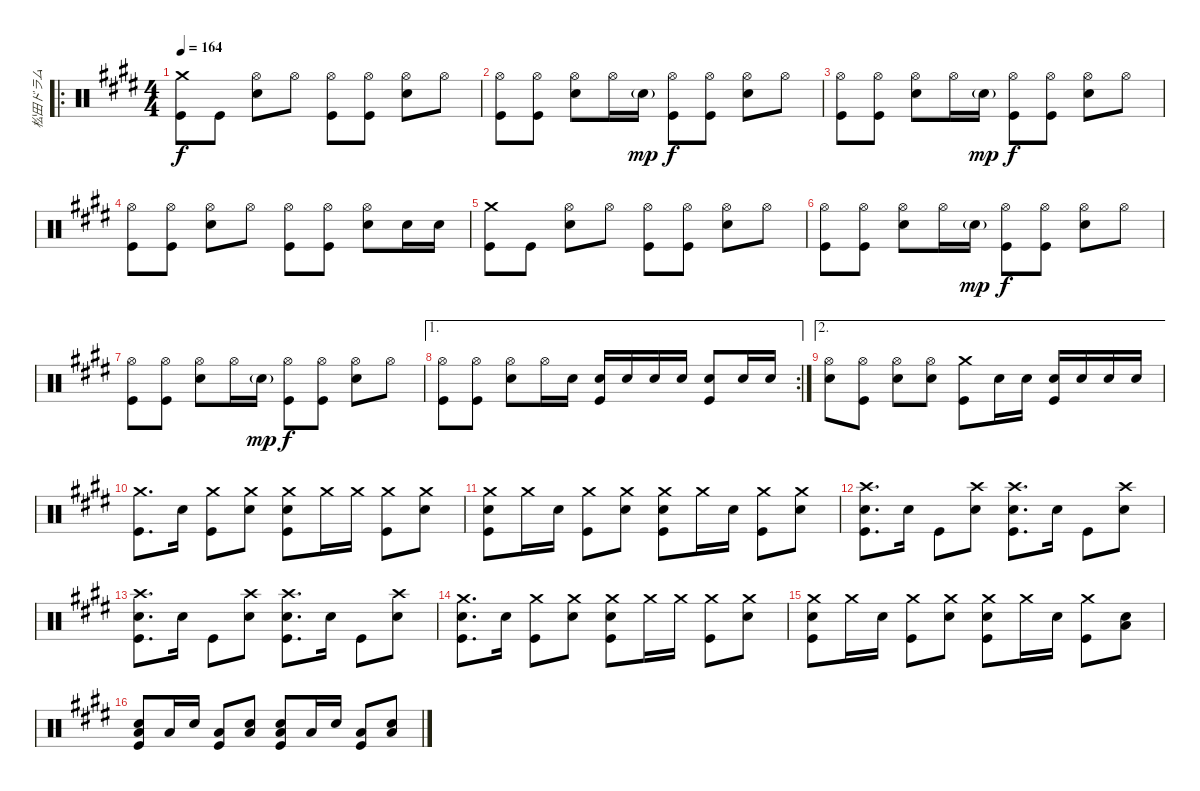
\track ("松田ドラム" "松田ドラム") {instrument percussion}
\staff {score}
\articulation defaults
\ro
\ts (4 4)
\tempo 164
\clef neutral
\ks e
("Crash medium (hit)" "Kick (hit)").8{dy f} "Kick (hit)".8 ("Hi-Hat (open)" "Snare (hit) 2").8 "Hi-Hat (open)".8 ("Hi-Hat (open)" "Kick (hit)").8 ("Hi-Hat (open)" "Kick (hit)").8 ("Hi-Hat (open)" "Snare (hit) 2").8 "Hi-Hat (open)".8 |
("Hi-Hat (open)" "Kick (hit)").8 ("Hi-Hat (open)" "Kick (hit)").8 ("Hi-Hat (open)" "Snare (hit) 2").8 "Hi-Hat (open)".16 "Snare (hit) 2"{g}.16{dy mp} ("Hi-Hat (open)" "Kick (hit)").8{dy f} ("Hi-Hat (open)" "Kick (hit)").8 ("Hi-Hat (open)" "Snare (hit) 2").8 "Hi-Hat (open)".8 |
("Hi-Hat (open)" "Kick (hit)").8 ("Hi-Hat (open)" "Kick (hit)").8 ("Hi-Hat (open)" "Snare (hit) 2").8 "Hi-Hat (open)".16 "Snare (hit) 2"{g}.16{dy mp} ("Hi-Hat (open)" "Kick (hit)").8{dy f} ("Hi-Hat (open)" "Kick (hit)").8 ("Hi-Hat (open)" "Snare (hit) 2").8 "Hi-Hat (open)".8 |
("Hi-Hat (open)" "Kick (hit)").8 ("Hi-Hat (open)" "Kick (hit)").8 ("Hi-Hat (open)" "Snare (hit) 2").8 "Hi-Hat (open)".8 ("Hi-Hat (open)" "Kick (hit)").8 ("Hi-Hat (open)" "Kick (hit)").8 ("Hi-Hat (open)" "Snare (hit) 2").8 "Snare (hit) 2".16 "Snare (hit) 2".16 |
("Crash medium (hit)" "Kick (hit)").8 "Kick (hit)".8 ("Hi-Hat (open)" "Snare (hit) 2").8 "Hi-Hat (open)".8 ("Hi-Hat (open)" "Kick (hit)").8 ("Hi-Hat (open)" "Kick (hit)").8 ("Hi-Hat (open)" "Snare (hit) 2").8 "Hi-Hat (open)".8 |
("Hi-Hat (open)" "Kick (hit)").8 ("Hi-Hat (open)" "Kick (hit)").8 ("Hi-Hat (open)" "Snare (hit) 2").8 "Hi-Hat (open)".16 "Snare (hit) 2"{g}.16{dy mp} ("Hi-Hat (open)" "Kick (hit)").8{dy f} ("Hi-Hat (open)" "Kick (hit)").8 ("Hi-Hat (open)" "Snare (hit) 2").8 "Hi-Hat (open)".8 |
("Hi-Hat (open)" "Kick (hit)").8 ("Hi-Hat (open)" "Kick (hit)").8 ("Hi-Hat (open)" "Snare (hit) 2").8 "Hi-Hat (open)".16 "Snare (hit) 2"{g}.16{dy mp} ("Hi-Hat (open)" "Kick (hit)").8{dy f} ("Hi-Hat (open)" "Kick (hit)").8 ("Hi-Hat (open)" "Snare (hit) 2").8 "Hi-Hat (open)".8 |
\ae 1
\rc 2
("Hi-Hat (open)" "Kick (hit)").8 ("Hi-Hat (open)" "Kick (hit)").8 ("Hi-Hat (open)" "Snare (hit) 2").8 "Hi-Hat (open)".16 "Snare (hit) 2".16 ("Snare (hit) 2" "Kick (hit)").16 "Snare (hit) 2".16 "Snare (hit) 2".16 "Snare (hit) 2".16 ("Snare (hit) 2" "Kick (hit)").8 "Snare (hit) 2".16 "Snare (hit) 2".16 |
\ae 2
("Hi-Hat (open)" "Snare (hit) 2").8 ("Hi-Hat (open)" "Kick (hit)").8 ("Hi-Hat (open)" "Snare (hit) 2").8 ("Hi-Hat (open)" "Snare (hit) 2").8 ("Crash medium (hit)" "Kick (hit)").8 "Snare (hit) 2".16 "Snare (hit) 2".16 ("Snare (hit) 2" "Kick (hit)").16 "Snare (hit) 2".16 "Snare (hit) 2".16 "Snare (hit) 2".16 |
("Crash medium (hit)" "Kick (hit)").8{d} "Snare (hit) 2".16 ("Crash medium (hit)" "Kick (hit)").8 ("Crash medium (hit)" "Snare (hit) 2").8 ("Crash medium (hit)" "Snare (hit) 2" "Kick (hit)").8 "Crash medium (hit)".16 "Crash medium (hit)".16 ("Crash medium (hit)" "Kick (hit)").8 ("Crash medium (hit)" "Snare (hit) 2").8 |
("Crash medium (hit)" "Snare (hit) 2" "Kick (hit)").8 "Crash medium (hit)".16 "Snare (hit) 2".16 ("Crash medium (hit)" "Kick (hit)").8 ("Crash medium (hit)" "Snare (hit) 2").8 ("Crash medium (hit)" "Snare (hit) 2" "Kick (hit)").8 "Crash medium (hit)".16 "Snare (hit) 2".16 ("Crash medium (hit)" "Kick (hit)").8 ("Crash medium (hit)" "Snare (hit) 2").8 |
("Crash high (hit)" "Snare (hit) 2" "Kick (hit)").8{d} "Snare (hit) 2".16 "Kick (hit)".8 ("Crash high (hit)" "Snare (hit) 2").8 ("Crash high (hit)" "Snare (hit) 2" "Kick (hit)").8{d} "Snare (hit) 2".16 "Kick (hit)".8 ("Crash high (hit)" "Snare (hit) 2").8 |
("Crash high (hit)" "Snare (hit) 2" "Kick (hit)").8{d} "Snare (hit) 2".16 "Kick (hit)".8 ("Crash high (hit)" "Snare (hit) 2").8 ("Crash high (hit)" "Snare (hit) 2" "Kick (hit)").8{d} "Snare (hit) 2".16 "Kick (hit)".8 ("Crash high (hit)" "Snare (hit) 2").8 |
("Crash medium (hit)" "Snare (hit) 2" "Kick (hit)").8{d} "Snare (hit) 2".16 ("Crash medium (hit)" "Kick (hit)").8 ("Crash medium (hit)" "Snare (hit) 2").8 ("Crash medium (hit)" "Snare (hit) 2" "Kick (hit)").8 "Crash medium (hit)".16 "Crash medium (hit)".16 ("Crash medium (hit)" "Kick (hit)").8 ("Crash medium (hit)" "Snare (hit) 2").8 |
("Crash medium (hit)" "Snare (hit) 2" "Kick (hit)").8 "Crash medium (hit)".16 "Snare (hit) 2".16 ("Crash medium (hit)" "Kick (hit)").8 ("Crash medium (hit)" "Snare (hit) 2").8 ("Crash medium (hit)" "Snare (hit) 2" "Kick (hit)").8 "Crash medium (hit)".16 "Snare (hit) 2".16 ("Crash medium (hit)" "Kick (hit)").8 ("Low Floor Tom (hit)" "Snare (hit) 2").8 |
("Low Floor Tom (hit)" "Snare (hit) 2" "Kick (hit)").8 "Low Floor Tom (hit)".16 "Snare (hit) 2".16 ("Low Floor Tom (hit)" "Kick (hit)").8 ("Low Floor Tom (hit)" "Snare (hit) 2").8 ("Low Floor Tom (hit)" "Snare (hit) 2" "Kick (hit)").8 "Low Floor Tom (hit)".16 "Snare (hit) 2".16 ("Low Floor Tom (hit)" "Kick (hit)").8 ("Low Floor Tom (hit)" "Snare (hit) 2").8
